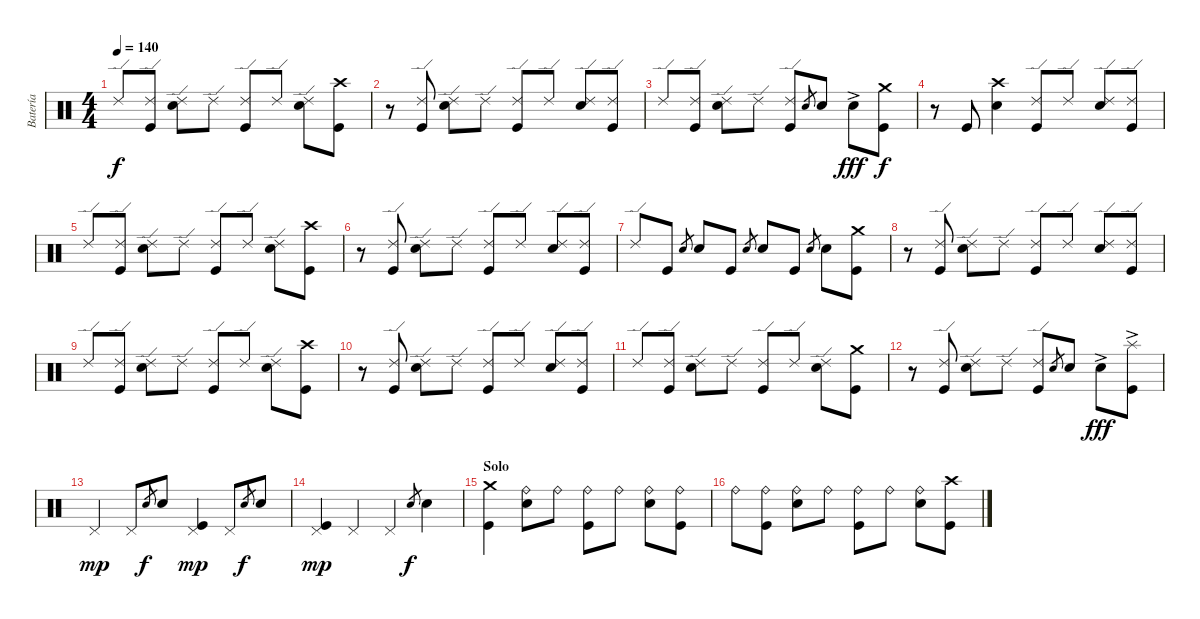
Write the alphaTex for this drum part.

\track ("Batería" "Batería") {instrument percussion}
\staff {score}
\articulation defaults
\ts (4 4)
\tempo 140
\clef neutral
\ks c "Ride (edge) 2".8{dy f}
("Kick (hit)" "Ride (edge) 2").8 ("Electric Snare (hit)" "Ride (edge) 2").8 "Ride (edge) 2".8 ("Kick (hit)" "Ride (edge) 2").8 "Ride (edge) 2".8 ("Electric Snare (hit)" "Ride (edge) 2").8 ("Kick (hit)" "Crash high (hit)").8 |
r.8 ("Kick (hit)" "Ride (edge) 2").8 ("Electric Snare (hit)" "Ride (edge) 2").8 "Ride (edge) 2".8 ("Kick (hit)" "Ride (edge) 2").8 "Ride (edge) 2".8 ("Electric Snare (hit)" "Ride (edge) 2").8 ("Kick (hit)" "Ride (edge) 2").8 |
"Ride (edge) 2".8 ("Kick (hit)" "Ride (edge) 2").8 ("Electric Snare (hit)" "Ride (edge) 2").8 "Ride (edge) 2".8 ("Kick (hit)" "Ride (edge) 2").8 "Electric Snare (hit)".8{gr} "Electric Snare (hit)".8 "Electric Snare (hit)"{ac}.8{dy fff} ("Kick (hit)" "Crash medium (hit)").8{dy f} |
r.8 "Kick (hit)".8 ("Electric Snare (hit)" "Crash high (hit)").4 ("Kick (hit)" "Ride (edge) 2").8 "Ride (edge) 2".8 ("Electric Snare (hit)" "Ride (edge) 2").8 ("Kick (hit)" "Ride (edge) 2").8 |
"Ride (edge) 2".8 ("Kick (hit)" "Ride (edge) 2").8 ("Electric Snare (hit)" "Ride (edge) 2").8 "Ride (edge) 2".8 ("Kick (hit)" "Ride (edge) 2").8 "Ride (edge) 2".8 ("Electric Snare (hit)" "Ride (edge) 2").8 ("Kick (hit)" "Crash high (hit)").8 |
r.8 ("Kick (hit)" "Ride (edge) 2").8 ("Electric Snare (hit)" "Ride (edge) 2").8 "Ride (edge) 2".8 ("Kick (hit)" "Ride (edge) 2").8 "Ride (edge) 2".8 ("Electric Snare (hit)" "Ride (edge) 2").8 ("Kick (hit)" "Ride (edge) 2").8 |
"Ride (edge) 2".8 "Kick (hit)".8 "Electric Snare (hit)".8{gr} "Electric Snare (hit)".8 "Kick (hit)".8 "Electric Snare (hit)".8{gr} "Electric Snare (hit)".8 "Kick (hit)".8 "Electric Snare (hit)".8{gr} "Electric Snare (hit)".8 ("Kick (hit)" "Crash medium (hit)").8 |
r.8 ("Kick (hit)" "Ride (edge) 2").8 ("Electric Snare (hit)" "Ride (edge) 2").8 "Ride (edge) 2".8 ("Kick (hit)" "Ride (edge) 2").8 "Ride (edge) 2".8 ("Electric Snare (hit)" "Ride (edge) 2").8 ("Kick (hit)" "Ride (edge) 2").8 |
"Ride (edge) 2".8 ("Kick (hit)" "Ride (edge) 2").8 ("Electric Snare (hit)" "Ride (edge) 2").8 "Ride (edge) 2".8 ("Kick (hit)" "Ride (edge) 2").8 "Ride (edge) 2".8 ("Electric Snare (hit)" "Ride (edge) 2").8 ("Kick (hit)" "Crash high (hit)").8 |
r.8 ("Kick (hit)" "Ride (edge) 2").8 ("Electric Snare (hit)" "Ride (edge) 2").8 "Ride (edge) 2".8 ("Kick (hit)" "Ride (edge) 2").8 "Ride (edge) 2".8 ("Electric Snare (hit)" "Ride (edge) 2").8 ("Kick (hit)" "Ride (edge) 2").8 |
"Ride (edge) 2".8 ("Kick (hit)" "Ride (edge) 2").8 ("Electric Snare (hit)" "Ride (edge) 2").8 "Ride (edge) 2".8 ("Kick (hit)" "Ride (edge) 2").8 "Ride (edge) 2".8 ("Electric Snare (hit)" "Ride (edge) 2").8 ("Kick (hit)" "Crash medium (hit)").8 |
r.8 ("Kick (hit)" "Ride (edge) 2").8 ("Electric Snare (hit)" "Ride (edge) 2").8 "Ride (edge) 2".8 ("Kick (hit)" "Ride (edge) 2").8 "Electric Snare (hit)".8{gr} "Electric Snare (hit)".8 "Electric Snare (hit)"{ac}.8{dy fff} ("Kick (hit)" "Splash (hit)"{ac}).8 |
"Pedal Hi-Hat (hit)".4{dy mp} "Pedal Hi-Hat (hit)".8 "Electric Snare (hit)".8{gr dy f} "Electric Snare (hit)".8 ("Kick (hit)" "Pedal Hi-Hat (hit)").4{dy mp} "Pedal Hi-Hat (hit)".8 "Electric Snare (hit)".8{gr dy f} "Electric Snare (hit)".8 |
("Kick (hit)" "Pedal Hi-Hat (hit)").4{dy mp} "Pedal Hi-Hat (hit)".4 "Pedal Hi-Hat (hit)".4 "Electric Snare (hit)".8{gr dy f} "Electric Snare (hit)".4 |
\section ("" "Solo")
("Kick (hit)" "Crash medium (hit)").4 ("Electric Snare (hit)" "Ride (bell)").8 "Ride (bell)".8 ("Kick (hit)" "Ride (bell)").8 "Ride (bell)".8 ("Electric Snare (hit)" "Ride (bell)").8 ("Kick (hit)" "Ride (bell)").8 |
"Ride (bell)".8 ("Kick (hit)" "Ride (bell)").8 ("Electric Snare (hit)" "Ride (bell)").8 "Ride (bell)".8 ("Kick (hit)" "Ride (bell)").8 "Ride (bell)".8 ("Electric Snare (hit)" "Ride (bell)").8 ("Kick (hit)" "Crash high (hit)").8
